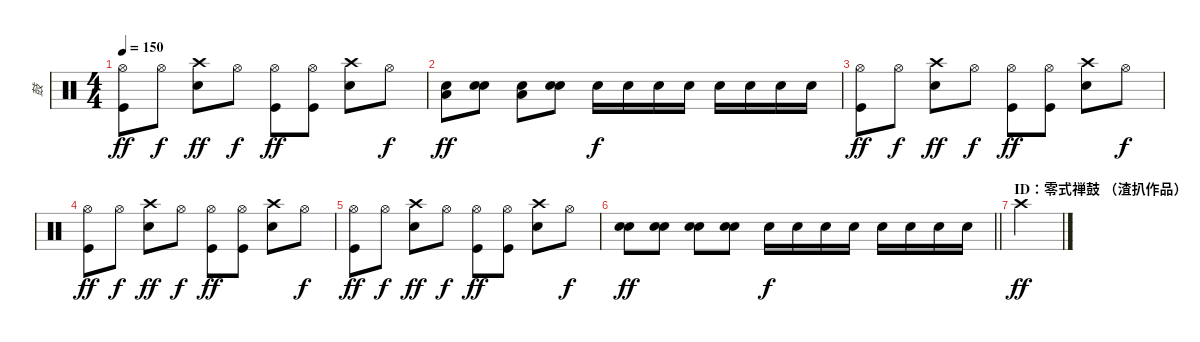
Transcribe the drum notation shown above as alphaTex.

\track ("鼓" "鼓") {instrument percussion}
\staff {score}
\articulation defaults
\ts (4 4)
\tempo 150
\clef neutral
\ks c
("Hi-Hat (open)" "Kick (hit)").8{dy ff} "Hi-Hat (open)".8{dy f} ("Crash high (hit)" "Electric Snare (hit)").8{dy ff} "Hi-Hat (open)".8{dy f} ("Hi-Hat (open)" "Kick (hit)").8{dy ff} ("Hi-Hat (open)" "Kick (hit)").8 ("Crash high (hit)" "Electric Snare (hit)").8 "Hi-Hat (open)".8{dy f} |
("Electric Snare (hit)" "Low Tom (hit)").8{dy ff} ("Electric Snare (hit)" "Electric Snare (hit)").8 ("Electric Snare (hit)" "Low Tom (hit)").8 ("Electric Snare (hit)" "Electric Snare (hit)").8 "Snare (hit) 2".16{dy f} "Snare (hit) 2".16 "Snare (hit) 2".16 "Snare (hit) 2".16 "Snare (hit) 2".16 "Snare (hit) 2".16 "Snare (hit) 2".16 "Snare (hit) 2".16 |
("Hi-Hat (open)" "Kick (hit)").8{dy ff} "Hi-Hat (open)".8{dy f} ("Crash high (hit)" "Electric Snare (hit)").8{dy ff} "Hi-Hat (open)".8{dy f} ("Hi-Hat (open)" "Kick (hit)").8{dy ff} ("Hi-Hat (open)" "Kick (hit)").8 ("Crash high (hit)" "Electric Snare (hit)").8 "Hi-Hat (open)".8{dy f} |
("Hi-Hat (open)" "Kick (hit)").8{dy ff} "Hi-Hat (open)".8{dy f} ("Crash high (hit)" "Electric Snare (hit)").8{dy ff} "Hi-Hat (open)".8{dy f} ("Hi-Hat (open)" "Kick (hit)").8{dy ff} ("Hi-Hat (open)" "Kick (hit)").8 ("Crash high (hit)" "Electric Snare (hit)").8 "Hi-Hat (open)".8{dy f} |
("Hi-Hat (open)" "Kick (hit)").8{dy ff} "Hi-Hat (open)".8{dy f} ("Crash high (hit)" "Electric Snare (hit)").8{dy ff} "Hi-Hat (open)".8{dy f} ("Hi-Hat (open)" "Kick (hit)").8{dy ff} ("Hi-Hat (open)" "Kick (hit)").8 ("Crash high (hit)" "Electric Snare (hit)").8 "Hi-Hat (open)".8{dy f} |
\barLineRight lightlight
("Electric Snare (hit)" "Electric Snare (hit)").8{dy ff} ("Electric Snare (hit)" "Electric Snare (hit)").8 ("Electric Snare (hit)" "Electric Snare (hit)").8 ("Electric Snare (hit)" "Electric Snare (hit)").8 "Snare (hit) 2".16{dy f} "Snare (hit) 2".16 "Snare (hit) 2".16 "Snare (hit) 2".16 "Snare (hit) 2".16 "Snare (hit) 2".16 "Snare (hit) 2".16 "Snare (hit) 2".16 |
\section ("" "ID：零式禅鼓 （渣扒作品）")
"Crash high (hit)".2{dy ff}
